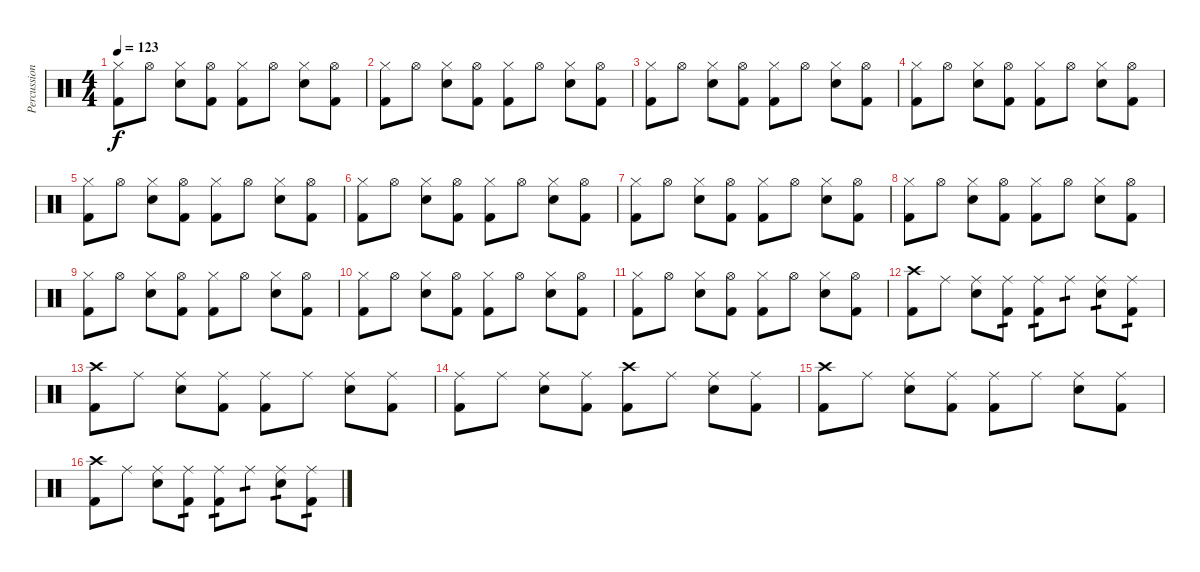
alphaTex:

\track ("Percussion" "Percussion") {instrument percussion}
\staff {score}
\articulation defaults
\ts (4 4)
\tempo 123
\clef neutral
\ks c
("Hi-Hat (closed)" "Kick (hit) 2").8{dy f} "Hi-Hat (open)".8 ("Hi-Hat (closed)" "Electric Snare (hit)").8 ("Hi-Hat (open)" "Kick (hit) 2").8 ("Hi-Hat (closed)" "Kick (hit) 2").8 "Hi-Hat (open)".8 ("Hi-Hat (closed)" "Electric Snare (hit)").8 ("Hi-Hat (open)" "Kick (hit) 2").8 |
("Hi-Hat (closed)" "Kick (hit) 2").8 "Hi-Hat (open)".8 ("Hi-Hat (closed)" "Electric Snare (hit)").8 ("Hi-Hat (open)" "Kick (hit) 2").8 ("Hi-Hat (closed)" "Kick (hit) 2").8 "Hi-Hat (open)".8 ("Hi-Hat (closed)" "Electric Snare (hit)").8 ("Hi-Hat (open)" "Kick (hit) 2").8 |
("Hi-Hat (closed)" "Kick (hit) 2").8 "Hi-Hat (open)".8 ("Hi-Hat (closed)" "Electric Snare (hit)").8 ("Hi-Hat (open)" "Kick (hit) 2").8 ("Hi-Hat (closed)" "Kick (hit) 2").8 "Hi-Hat (open)".8 ("Hi-Hat (closed)" "Electric Snare (hit)").8 ("Hi-Hat (open)" "Kick (hit) 2").8 |
("Hi-Hat (closed)" "Kick (hit) 2").8 "Hi-Hat (open)".8 ("Hi-Hat (closed)" "Electric Snare (hit)").8 ("Hi-Hat (open)" "Kick (hit) 2").8 ("Hi-Hat (closed)" "Kick (hit) 2").8 "Hi-Hat (open)".8 ("Hi-Hat (closed)" "Electric Snare (hit)").8 ("Hi-Hat (open)" "Kick (hit) 2").8 |
("Hi-Hat (closed)" "Kick (hit) 2").8 "Hi-Hat (open)".8 ("Hi-Hat (closed)" "Electric Snare (hit)").8 ("Hi-Hat (open)" "Kick (hit) 2").8 ("Hi-Hat (closed)" "Kick (hit) 2").8 "Hi-Hat (open)".8 ("Hi-Hat (closed)" "Electric Snare (hit)").8 ("Hi-Hat (open)" "Kick (hit) 2").8 |
("Hi-Hat (closed)" "Kick (hit) 2").8 "Hi-Hat (open)".8 ("Hi-Hat (closed)" "Electric Snare (hit)").8 ("Hi-Hat (open)" "Kick (hit) 2").8 ("Hi-Hat (closed)" "Kick (hit) 2").8 "Hi-Hat (open)".8 ("Hi-Hat (closed)" "Electric Snare (hit)").8 ("Hi-Hat (open)" "Kick (hit) 2").8 |
("Hi-Hat (closed)" "Kick (hit) 2").8 "Hi-Hat (open)".8 ("Hi-Hat (closed)" "Electric Snare (hit)").8 ("Hi-Hat (open)" "Kick (hit) 2").8 ("Hi-Hat (closed)" "Kick (hit) 2").8 "Hi-Hat (open)".8 ("Hi-Hat (closed)" "Electric Snare (hit)").8 ("Hi-Hat (open)" "Kick (hit) 2").8 |
("Hi-Hat (closed)" "Kick (hit) 2").8 "Hi-Hat (open)".8 ("Hi-Hat (closed)" "Electric Snare (hit)").8 ("Hi-Hat (open)" "Kick (hit) 2").8 ("Hi-Hat (closed)" "Kick (hit) 2").8 "Hi-Hat (open)".8 ("Hi-Hat (closed)" "Electric Snare (hit)").8 ("Hi-Hat (open)" "Kick (hit) 2").8 |
("Hi-Hat (closed)" "Kick (hit) 2").8 "Hi-Hat (open)".8 ("Hi-Hat (closed)" "Electric Snare (hit)").8 ("Hi-Hat (open)" "Kick (hit) 2").8 ("Hi-Hat (closed)" "Kick (hit) 2").8 "Hi-Hat (open)".8 ("Hi-Hat (closed)" "Electric Snare (hit)").8 ("Hi-Hat (open)" "Kick (hit) 2").8 |
("Hi-Hat (closed)" "Kick (hit) 2").8 "Hi-Hat (open)".8 ("Hi-Hat (closed)" "Electric Snare (hit)").8 ("Hi-Hat (open)" "Kick (hit) 2").8 ("Hi-Hat (closed)" "Kick (hit) 2").8 "Hi-Hat (open)".8 ("Hi-Hat (closed)" "Electric Snare (hit)").8 ("Hi-Hat (open)" "Kick (hit) 2").8 |
("Hi-Hat (closed)" "Kick (hit) 2").8 "Hi-Hat (open)".8 ("Hi-Hat (closed)" "Electric Snare (hit)").8 ("Hi-Hat (open)" "Kick (hit) 2").8 ("Hi-Hat (closed)" "Kick (hit) 2").8 "Hi-Hat (open)".8 ("Hi-Hat (closed)" "Electric Snare (hit)").8 ("Hi-Hat (open)" "Kick (hit) 2").8 |
("Crash high (hit)" "Kick (hit) 2").8 "Ride (middle)".8 ("Ride (middle)" "Electric Snare (hit)").8 ("Ride (middle)" "Kick (hit) 2").8{tp 1} ("Ride (middle)" "Kick (hit) 2").8{tp 1} "Ride (middle)".8{tp 1} ("Ride (middle)" "Electric Snare (hit)").8{tp 1} ("Ride (middle)" "Kick (hit) 2").8{tp 1} |
("Crash high (hit)" "Kick (hit) 2").8 "Ride (middle)".8 ("Ride (middle)" "Electric Snare (hit)").8 ("Ride (middle)" "Kick (hit) 2").8 ("Ride (middle)" "Kick (hit) 2").8 "Ride (middle)".8 ("Ride (middle)" "Electric Snare (hit)").8 ("Ride (middle)" "Kick (hit) 2").8 |
("Ride (middle)" "Kick (hit) 2").8 "Ride (middle)".8 ("Ride (middle)" "Electric Snare (hit)").8 ("Ride (middle)" "Kick (hit) 2").8 ("Crash high (hit)" "Kick (hit) 2").8 "Ride (middle)".8 ("Ride (middle)" "Electric Snare (hit)").8 ("Ride (middle)" "Kick (hit) 2").8 |
("Crash high (hit)" "Kick (hit) 2").8 "Ride (middle)".8 ("Ride (middle)" "Electric Snare (hit)").8 ("Ride (middle)" "Kick (hit) 2").8 ("Ride (middle)" "Kick (hit) 2").8 "Ride (middle)".8 ("Ride (middle)" "Electric Snare (hit)").8 ("Ride (middle)" "Kick (hit) 2").8 |
("Crash high (hit)" "Kick (hit) 2").8 "Ride (middle)".8 ("Ride (middle)" "Electric Snare (hit)").8 ("Ride (middle)" "Kick (hit) 2").8{tp 1} ("Ride (middle)" "Kick (hit) 2").8{tp 1} "Ride (middle)".8{tp 1} ("Ride (middle)" "Electric Snare (hit)").8{tp 1} ("Ride (middle)" "Kick (hit) 2").8{tp 1}
